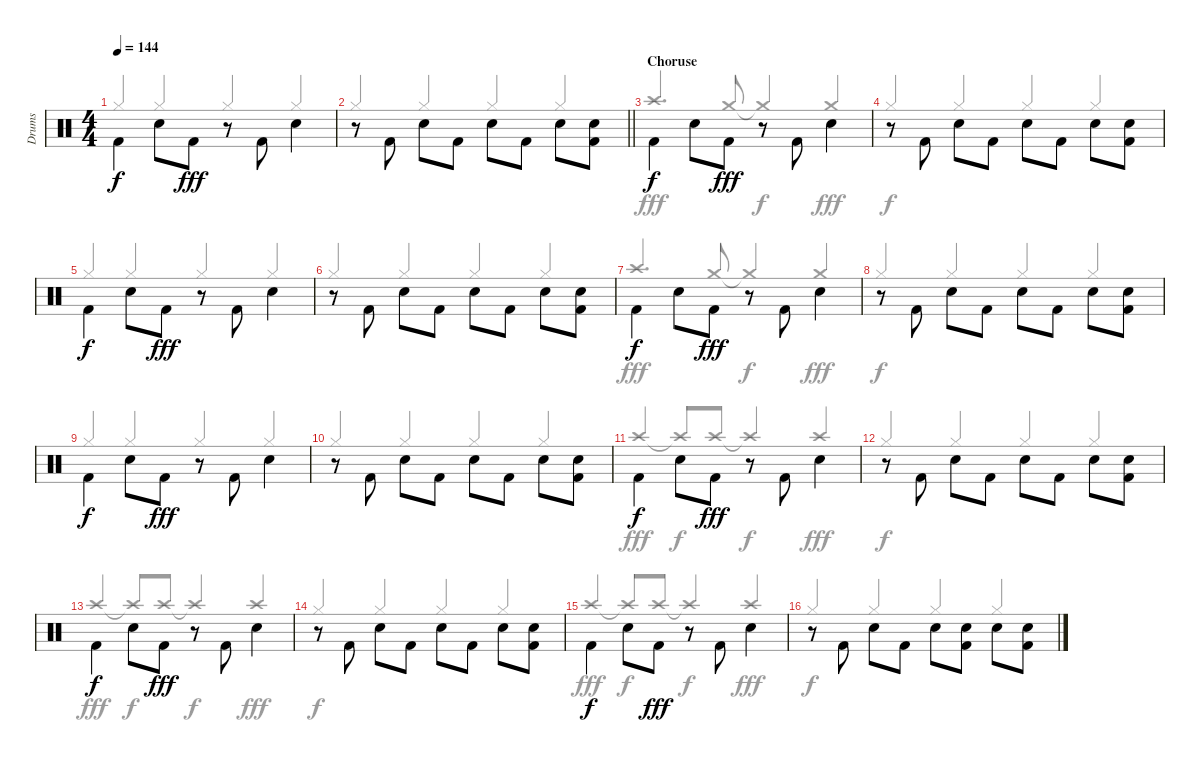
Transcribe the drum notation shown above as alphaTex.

\track ("Drums" "Drums") {instrument percussion}
\staff {score}
\articulation defaults
\voice
\ts (4 4)
\tempo 144
\clef neutral
\ks c "Kick (hit) 2".4{dy f beam Down} "Snare (hit) 2".8{beam Down} "Kick (hit) 2".8{dy fff beam Down}
r.8 "Kick (hit) 2".8{beam Down} "Snare (hit) 2".4{beam Down} |
\barLineRight lightlight
r.8 "Kick (hit) 2".8{beam Down} "Snare (hit) 2".8{beam Down} "Kick (hit) 2".8{beam Down} "Snare (hit) 2".8{beam Down} "Kick (hit) 2".8{beam Down} "Snare (hit) 2".8{beam Down} ("Snare (hit) 2" "Kick (hit) 2").8{beam Down} |
\section ("" "Choruse")
"Kick (hit) 2".4{dy f beam Down} "Snare (hit) 2".8{beam Down} "Kick (hit) 2".8{dy fff beam Down} r.8 "Kick (hit) 2".8{beam Down} "Snare (hit) 2".4{beam Down} |
r.8 "Kick (hit) 2".8{beam Down} "Snare (hit) 2".8{beam Down} "Kick (hit) 2".8{beam Down} "Snare (hit) 2".8{beam Down} "Kick (hit) 2".8{beam Down} "Snare (hit) 2".8{beam Down} ("Snare (hit) 2" "Kick (hit) 2").8{beam Down} |
"Kick (hit) 2".4{dy f beam Down} "Snare (hit) 2".8{beam Down} "Kick (hit) 2".8{dy fff beam Down} r.8 "Kick (hit) 2".8{beam Down} "Snare (hit) 2".4{beam Down} |
r.8 "Kick (hit) 2".8{beam Down} "Snare (hit) 2".8{beam Down} "Kick (hit) 2".8{beam Down} "Snare (hit) 2".8{beam Down} "Kick (hit) 2".8{beam Down} "Snare (hit) 2".8{beam Down} ("Snare (hit) 2" "Kick (hit) 2").8{beam Down} |
"Kick (hit) 2".4{dy f beam Down} "Snare (hit) 2".8{beam Down} "Kick (hit) 2".8{dy fff beam Down} r.8 "Kick (hit) 2".8{beam Down} "Snare (hit) 2".4{beam Down} |
r.8 "Kick (hit) 2".8{beam Down} "Snare (hit) 2".8{beam Down} "Kick (hit) 2".8{beam Down} "Snare (hit) 2".8{beam Down} "Kick (hit) 2".8{beam Down} "Snare (hit) 2".8{beam Down} ("Snare (hit) 2" "Kick (hit) 2").8{beam Down} |
"Kick (hit) 2".4{dy f beam Down} "Snare (hit) 2".8{beam Down} "Kick (hit) 2".8{dy fff beam Down} r.8 "Kick (hit) 2".8{beam Down} "Snare (hit) 2".4{beam Down} |
r.8 "Kick (hit) 2".8{beam Down} "Snare (hit) 2".8{beam Down} "Kick (hit) 2".8{beam Down} "Snare (hit) 2".8{beam Down} "Kick (hit) 2".8{beam Down} "Snare (hit) 2".8{beam Down} ("Snare (hit) 2" "Kick (hit) 2").8{beam Down} |
"Kick (hit) 2".4{dy f beam Down} "Snare (hit) 2".8{beam Down} "Kick (hit) 2".8{dy fff beam Down} r.8 "Kick (hit) 2".8{beam Down} "Snare (hit) 2".4{beam Down} |
r.8 "Kick (hit) 2".8{beam Down} "Snare (hit) 2".8{beam Down} "Kick (hit) 2".8{beam Down} "Snare (hit) 2".8{beam Down} "Kick (hit) 2".8{beam Down} "Snare (hit) 2".8{beam Down} ("Snare (hit) 2" "Kick (hit) 2").8{beam Down} |
"Kick (hit) 2".4{dy f beam Down} "Snare (hit) 2".8{beam Down} "Kick (hit) 2".8{dy fff beam Down} r.8 "Kick (hit) 2".8{beam Down} "Snare (hit) 2".4{beam Down} |
r.8 "Kick (hit) 2".8{beam Down} "Snare (hit) 2".8{beam Down} "Kick (hit) 2".8{beam Down} "Snare (hit) 2".8{beam Down} "Kick (hit) 2".8{beam Down} "Snare (hit) 2".8{beam Down} ("Snare (hit) 2" "Kick (hit) 2").8{beam Down} |
"Kick (hit) 2".4{dy f beam Down} "Snare (hit) 2".8{beam Down} "Kick (hit) 2".8{dy fff beam Down} r.8 "Kick (hit) 2".8{beam Down} "Snare (hit) 2".4{beam Down} |
r.8 "Kick (hit) 2".8{beam Down} "Snare (hit) 2".8{beam Down} "Kick (hit) 2".8{beam Down} "Snare (hit) 2".8{beam Down} ("Snare (hit) 2" "Kick (hit) 2").8{beam Down} "Snare (hit) 2".8{beam Down} ("Snare (hit) 2" "Kick (hit) 2").8{beam Down}
\voice
\clef neutral
\ottava regular
\simile none
\ks c "Hi-Hat (closed)".4{dy f beam Up} "Hi-Hat (closed)".4{beam Up} "Hi-Hat (closed)".4{beam Up} "Hi-Hat (closed)".4{beam Up}
|
\barLineRight lightlight "Hi-Hat (closed)".4{beam Up} "Hi-Hat (closed)".4{beam Up} "Hi-Hat (closed)".4{beam Up} "Hi-Hat (closed)".4{beam Up}
|
"Crash high (hit)".4{d dy fff beam Up} "Crash medium (hit)".8{beam Up} "Crash medium (hit)"{t}.4{dy f beam Up} "Crash medium (hit)".4{dy fff beam Up} |
"Hi-Hat (closed)".4{dy f beam Up} "Hi-Hat (closed)".4{beam Up} "Hi-Hat (closed)".4{beam Up} "Hi-Hat (closed)".4{beam Up} |
"Hi-Hat (closed)".4{beam Up} "Hi-Hat (closed)".4{beam Up} "Hi-Hat (closed)".4{beam Up} "Hi-Hat (closed)".4{beam Up} |
"Hi-Hat (closed)".4{beam Up} "Hi-Hat (closed)".4{beam Up} "Hi-Hat (closed)".4{beam Up} "Hi-Hat (closed)".4{beam Up} |
"Crash high (hit)".4{d dy fff beam Up} "Crash medium (hit)".8{beam Up} "Crash medium (hit)"{t}.4{dy f beam Up} "Crash medium (hit)".4{dy fff beam Up} |
"Hi-Hat (closed)".4{dy f beam Up} "Hi-Hat (closed)".4{beam Up} "Hi-Hat (closed)".4{beam Up} "Hi-Hat (closed)".4{beam Up} |
"Hi-Hat (closed)".4{beam Up} "Hi-Hat (closed)".4{beam Up} "Hi-Hat (closed)".4{beam Up} "Hi-Hat (closed)".4{beam Up} |
"Hi-Hat (closed)".4{beam Up} "Hi-Hat (closed)".4{beam Up} "Hi-Hat (closed)".4{beam Up} "Hi-Hat (closed)".4{beam Up} |
"Crash high (hit)".4{dy fff beam Up} "Crash high (hit)"{t}.8{dy f beam Up} "Crash high (hit)".8{dy fff beam Up} "Crash high (hit)"{t}.4{dy f beam Up} "Crash high (hit)".4{dy fff beam Up} |
"Hi-Hat (closed)".4{dy f beam Up} "Hi-Hat (closed)".4{beam Up} "Hi-Hat (closed)".4{beam Up} "Hi-Hat (closed)".4{beam Up} |
"Crash high (hit)".4{dy fff beam Up} "Crash high (hit)"{t}.8{dy f beam Up} "Crash high (hit)".8{dy fff beam Up} "Crash high (hit)"{t}.4{dy f beam Up} "Crash high (hit)".4{dy fff beam Up} |
"Hi-Hat (closed)".4{dy f beam Up} "Hi-Hat (closed)".4{beam Up} "Hi-Hat (closed)".4{beam Up} "Hi-Hat (closed)".4{beam Up} |
"Crash high (hit)".4{dy fff beam Up} "Crash high (hit)"{t}.8{dy f beam Up} "Crash high (hit)".8{dy fff beam Up} "Crash high (hit)"{t}.4{dy f beam Up} "Crash high (hit)".4{dy fff beam Up} |
"Hi-Hat (closed)".4{dy f beam Up} "Hi-Hat (closed)".4{beam Up} "Hi-Hat (closed)".4{beam Up} "Hi-Hat (closed)".4{beam Up}
